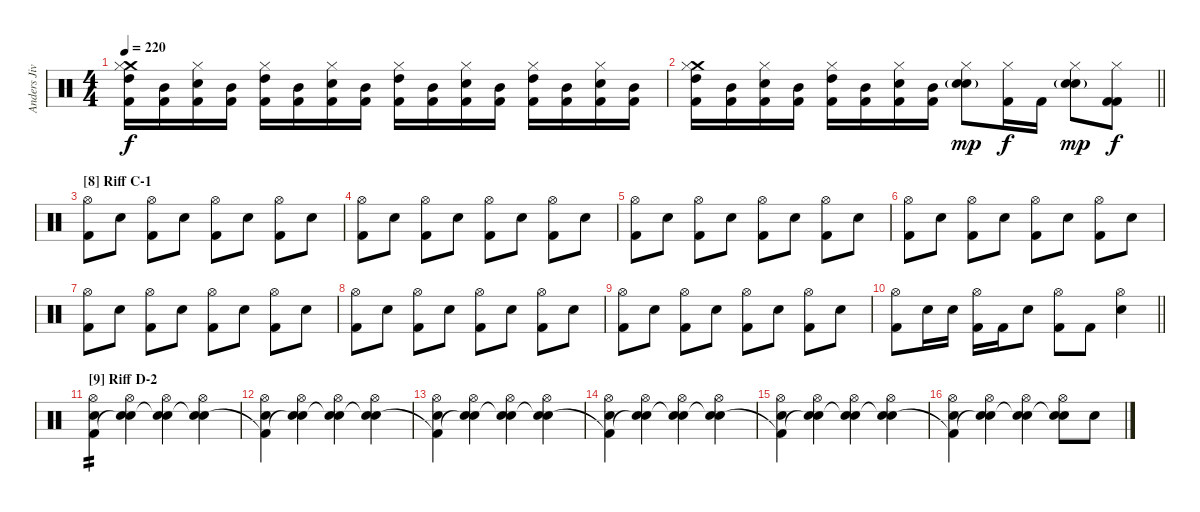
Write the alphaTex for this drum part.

\track ("Anders Jivarp" "Anders Jiv") {instrument percussion}
\staff {score}
\articulation defaults
\ts (4 4)
\tempo 220
\clef neutral
\ks c
("Crash medium (hit)" "Hi-Hat (closed)" "High Tom (hit)" "Kick (hit) 2").16{dy f} ("Mid Tom (hit)" "Kick (hit) 2").16 ("Hi-Hat (closed)" "Electric Snare (hit)" "Kick (hit) 2").16 ("Mid Tom (hit)" "Kick (hit) 2").16 ("Hi-Hat (closed)" "High Tom (hit)" "Kick (hit) 2").16 ("Mid Tom (hit)" "Kick (hit) 2").16 ("Hi-Hat (closed)" "Electric Snare (hit)" "Kick (hit) 2").16 ("Mid Tom (hit)" "Kick (hit) 2").16 ("Hi-Hat (closed)" "High Tom (hit)" "Kick (hit) 2").16 ("Mid Tom (hit)" "Kick (hit) 2").16 ("Hi-Hat (closed)" "Electric Snare (hit)" "Kick (hit) 2").16 ("Mid Tom (hit)" "Kick (hit) 2").16 ("Hi-Hat (closed)" "High Tom (hit)" "Kick (hit) 2").16 ("Mid Tom (hit)" "Kick (hit) 2").16 ("Hi-Hat (closed)" "Electric Snare (hit)" "Kick (hit) 2").16 ("Mid Tom (hit)" "Kick (hit) 2").16 |
\barLineRight lightlight
("Crash medium (hit)" "Hi-Hat (closed)" "High Tom (hit)" "Kick (hit) 2").16 ("Mid Tom (hit)" "Kick (hit) 2").16 ("Hi-Hat (closed)" "Electric Snare (hit)" "Kick (hit) 2").16 ("Mid Tom (hit)" "Kick (hit) 2").16 ("Hi-Hat (closed)" "High Tom (hit)" "Kick (hit) 2").16 ("Mid Tom (hit)" "Kick (hit) 2").16 ("Hi-Hat (closed)" "Electric Snare (hit)" "Kick (hit) 2").16 ("Mid Tom (hit)" "Kick (hit) 2").16 ("Hi-Hat (closed)" "Electric Snare (hit)"{g} "Snare (hit) 2").8{dy mp} ("Hi-Hat (closed)" "Kick (hit) 2").16{dy f} "Kick (hit) 2".16 ("Hi-Hat (closed)" "Electric Snare (hit)"{g} "Snare (hit) 2").8{dy mp} ("Hi-Hat (closed)" "Kick (hit) 2" "Kick (hit) 2").8{dy f} |
\section ("" "[8] Riff C-1")
("Hi-Hat (open)" "Kick (hit) 2").8 "Snare (hit) 2".8 ("Hi-Hat (open)" "Kick (hit) 2").8 "Snare (hit) 2".8 ("Hi-Hat (open)" "Kick (hit) 2").8 "Snare (hit) 2".8 ("Hi-Hat (open)" "Kick (hit) 2").8 "Snare (hit) 2".8 |
("Hi-Hat (open)" "Kick (hit) 2").8 "Snare (hit) 2".8 ("Hi-Hat (open)" "Kick (hit) 2").8 "Snare (hit) 2".8 ("Hi-Hat (open)" "Kick (hit) 2").8 "Snare (hit) 2".8 ("Hi-Hat (open)" "Kick (hit) 2").8 "Snare (hit) 2".8 |
("Hi-Hat (open)" "Kick (hit) 2").8 "Snare (hit) 2".8 ("Hi-Hat (open)" "Kick (hit) 2").8 "Snare (hit) 2".8 ("Hi-Hat (open)" "Kick (hit) 2").8 "Snare (hit) 2".8 ("Hi-Hat (open)" "Kick (hit) 2").8 "Snare (hit) 2".8 |
("Hi-Hat (open)" "Kick (hit) 2").8 "Snare (hit) 2".8 ("Hi-Hat (open)" "Kick (hit) 2").8 "Snare (hit) 2".8 ("Hi-Hat (open)" "Kick (hit) 2").8 "Snare (hit) 2".8 ("Hi-Hat (open)" "Kick (hit) 2").8 "Snare (hit) 2".8 |
("Hi-Hat (open)" "Kick (hit) 2").8 "Snare (hit) 2".8 ("Hi-Hat (open)" "Kick (hit) 2").8 "Snare (hit) 2".8 ("Hi-Hat (open)" "Kick (hit) 2").8 "Snare (hit) 2".8 ("Hi-Hat (open)" "Kick (hit) 2").8 "Snare (hit) 2".8 |
("Hi-Hat (open)" "Kick (hit) 2").8 "Snare (hit) 2".8 ("Hi-Hat (open)" "Kick (hit) 2").8 "Snare (hit) 2".8 ("Hi-Hat (open)" "Kick (hit) 2").8 "Snare (hit) 2".8 ("Hi-Hat (open)" "Kick (hit) 2").8 "Snare (hit) 2".8 |
("Hi-Hat (open)" "Kick (hit) 2").8 "Snare (hit) 2".8 ("Hi-Hat (open)" "Kick (hit) 2").8 "Snare (hit) 2".8 ("Hi-Hat (open)" "Kick (hit) 2").8 "Snare (hit) 2".8 ("Hi-Hat (open)" "Kick (hit) 2").8 "Snare (hit) 2".8 |
\barLineRight lightlight
("Hi-Hat (open)" "Kick (hit) 2").8 "Snare (hit) 2".16 "Snare (hit) 2".16 ("Hi-Hat (open)" "Kick (hit) 2").16 "Kick (hit) 2".16 "Snare (hit) 2".8 ("Hi-Hat (open)" "Kick (hit) 2").8 "Kick (hit) 2".8 ("Hi-Hat (open)" "Snare (hit) 2").4 |
\section ("" "[9] Riff D-2")
("Hi-Hat (open)" "Snare (hit) 2" "Kick (hit) 2").4{tp 2} ("Hi-Hat (open)" "Snare (hit) 2" "Snare (hit)"{t}).4 ("Hi-Hat (open)" "Snare (hit) 2" "Snare (hit)"{t}).4 ("Hi-Hat (open)" "Snare (hit) 2" "Snare (hit)"{t}).4 |
("Hi-Hat (open)" "Snare (hit) 2" "Kick (hit) 2"{t}).4 ("Hi-Hat (open)" "Snare (hit) 2" "Snare (hit)"{t}).4 ("Hi-Hat (open)" "Snare (hit) 2" "Snare (hit)"{t}).4 ("Hi-Hat (open)" "Snare (hit) 2" "Snare (hit)"{t}).4 |
("Hi-Hat (open)" "Snare (hit) 2" "Kick (hit) 2"{t}).4 ("Hi-Hat (open)" "Snare (hit) 2" "Snare (hit)"{t}).4 ("Hi-Hat (open)" "Snare (hit) 2" "Snare (hit)"{t}).4 ("Hi-Hat (open)" "Snare (hit) 2" "Snare (hit)"{t}).4 |
("Hi-Hat (open)" "Snare (hit) 2" "Kick (hit) 2"{t}).4 ("Hi-Hat (open)" "Snare (hit) 2" "Snare (hit)"{t}).4 ("Hi-Hat (open)" "Snare (hit) 2" "Snare (hit)"{t}).4 ("Hi-Hat (open)" "Snare (hit) 2" "Snare (hit)"{t}).4 |
("Hi-Hat (open)" "Snare (hit) 2" "Kick (hit) 2"{t}).4 ("Hi-Hat (open)" "Snare (hit) 2" "Snare (hit)"{t}).4 ("Hi-Hat (open)" "Snare (hit) 2" "Snare (hit)"{t}).4 ("Hi-Hat (open)" "Snare (hit) 2" "Snare (hit)"{t}).4 |
("Hi-Hat (open)" "Snare (hit) 2" "Kick (hit) 2"{t}).4 ("Hi-Hat (open)" "Snare (hit) 2" "Snare (hit)"{t}).4 ("Hi-Hat (open)" "Snare (hit) 2" "Snare (hit)"{t}).4 ("Hi-Hat (open)" "Snare (hit) 2" "Snare (hit)"{t}).8 "Snare (hit) 2".8
